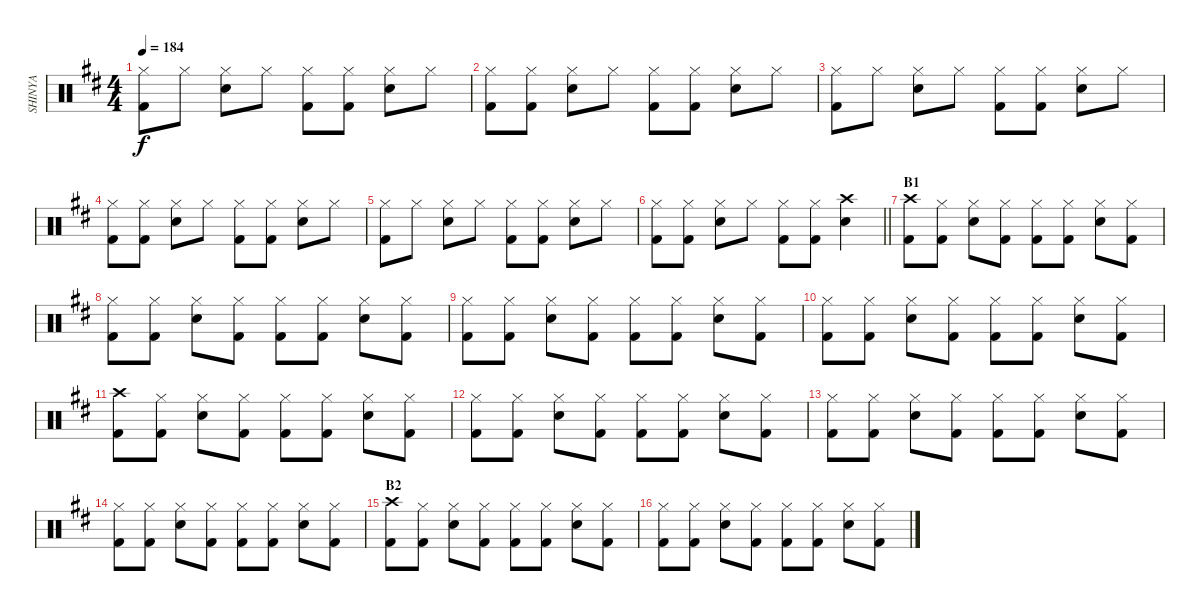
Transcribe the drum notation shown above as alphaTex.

\track ("SHINYA" "SHINYA") {instrument percussion}
\staff {score}
\articulation defaults
\ts (4 4)
\tempo 184
\clef neutral
\ks bminor
("Hi-Hat (closed)" "Kick (hit) 2").8{dy f} "Hi-Hat (closed)".8 ("Hi-Hat (closed)" "Snare (hit) 2").8 "Hi-Hat (closed)".8 ("Hi-Hat (closed)" "Kick (hit) 2").8 ("Hi-Hat (closed)" "Kick (hit) 2").8 ("Hi-Hat (closed)" "Snare (hit) 2").8 "Hi-Hat (closed)".8 |
("Hi-Hat (closed)" "Kick (hit) 2").8 ("Hi-Hat (closed)" "Kick (hit) 2").8 ("Hi-Hat (closed)" "Snare (hit) 2").8 "Hi-Hat (closed)".8 ("Hi-Hat (closed)" "Kick (hit) 2").8 ("Hi-Hat (closed)" "Kick (hit) 2").8 ("Hi-Hat (closed)" "Snare (hit) 2").8 "Hi-Hat (closed)".8 |
("Hi-Hat (closed)" "Kick (hit) 2").8 "Hi-Hat (closed)".8 ("Hi-Hat (closed)" "Snare (hit) 2").8 "Hi-Hat (closed)".8 ("Hi-Hat (closed)" "Kick (hit) 2").8 ("Hi-Hat (closed)" "Kick (hit) 2").8 ("Hi-Hat (closed)" "Snare (hit) 2").8 "Hi-Hat (closed)".8 |
("Hi-Hat (closed)" "Kick (hit) 2").8 ("Hi-Hat (closed)" "Kick (hit) 2").8 ("Hi-Hat (closed)" "Snare (hit) 2").8 "Hi-Hat (closed)".8 ("Hi-Hat (closed)" "Kick (hit) 2").8 ("Hi-Hat (closed)" "Kick (hit) 2").8 ("Hi-Hat (closed)" "Snare (hit) 2").8 "Hi-Hat (closed)".8 |
("Hi-Hat (closed)" "Kick (hit) 2").8 "Hi-Hat (closed)".8 ("Hi-Hat (closed)" "Snare (hit) 2").8 "Hi-Hat (closed)".8 ("Hi-Hat (closed)" "Kick (hit) 2").8 ("Hi-Hat (closed)" "Kick (hit) 2").8 ("Hi-Hat (closed)" "Snare (hit) 2").8 "Hi-Hat (closed)".8 |
\barLineRight lightlight
("Hi-Hat (closed)" "Kick (hit) 2").8 ("Hi-Hat (closed)" "Kick (hit) 2").8 ("Hi-Hat (closed)" "Snare (hit) 2").8 "Hi-Hat (closed)".8 ("Hi-Hat (closed)" "Kick (hit) 2").8 ("Hi-Hat (closed)" "Kick (hit) 2").8 ("Crash high (hit)" "Snare (hit) 2").4 |
\section ("" "B1")
("Crash high (hit)" "Kick (hit) 2").8 ("Hi-Hat (closed)" "Kick (hit) 2").8 ("Hi-Hat (closed)" "Snare (hit) 2").8 ("Hi-Hat (closed)" "Kick (hit) 2").8 ("Hi-Hat (closed)" "Kick (hit) 2").8 ("Hi-Hat (closed)" "Kick (hit) 2").8 ("Hi-Hat (closed)" "Snare (hit) 2").8 ("Hi-Hat (closed)" "Kick (hit) 2").8 |
("Hi-Hat (closed)" "Kick (hit) 2").8 ("Hi-Hat (closed)" "Kick (hit) 2").8 ("Hi-Hat (closed)" "Snare (hit) 2").8 ("Hi-Hat (closed)" "Kick (hit) 2").8 ("Hi-Hat (closed)" "Kick (hit) 2").8 ("Hi-Hat (closed)" "Kick (hit) 2").8 ("Hi-Hat (closed)" "Snare (hit) 2").8 ("Hi-Hat (closed)" "Kick (hit) 2").8 |
("Hi-Hat (closed)" "Kick (hit) 2").8 ("Hi-Hat (closed)" "Kick (hit) 2").8 ("Hi-Hat (closed)" "Snare (hit) 2").8 ("Hi-Hat (closed)" "Kick (hit) 2").8 ("Hi-Hat (closed)" "Kick (hit) 2").8 ("Hi-Hat (closed)" "Kick (hit) 2").8 ("Hi-Hat (closed)" "Snare (hit) 2").8 ("Hi-Hat (closed)" "Kick (hit) 2").8 |
("Hi-Hat (closed)" "Kick (hit) 2").8 ("Hi-Hat (closed)" "Kick (hit) 2").8 ("Hi-Hat (closed)" "Snare (hit) 2").8 ("Hi-Hat (closed)" "Kick (hit) 2").8 ("Hi-Hat (closed)" "Kick (hit) 2").8 ("Hi-Hat (closed)" "Kick (hit) 2").8 ("Hi-Hat (closed)" "Snare (hit) 2").8 ("Hi-Hat (closed)" "Kick (hit) 2").8 |
("Crash high (hit)" "Kick (hit) 2").8 ("Hi-Hat (closed)" "Kick (hit) 2").8 ("Hi-Hat (closed)" "Snare (hit) 2").8 ("Hi-Hat (closed)" "Kick (hit) 2").8 ("Hi-Hat (closed)" "Kick (hit) 2").8 ("Hi-Hat (closed)" "Kick (hit) 2").8 ("Hi-Hat (closed)" "Snare (hit) 2").8 ("Hi-Hat (closed)" "Kick (hit) 2").8 |
("Hi-Hat (closed)" "Kick (hit) 2").8 ("Hi-Hat (closed)" "Kick (hit) 2").8 ("Hi-Hat (closed)" "Snare (hit) 2").8 ("Hi-Hat (closed)" "Kick (hit) 2").8 ("Hi-Hat (closed)" "Kick (hit) 2").8 ("Hi-Hat (closed)" "Kick (hit) 2").8 ("Hi-Hat (closed)" "Snare (hit) 2").8 ("Hi-Hat (closed)" "Kick (hit) 2").8 |
("Hi-Hat (closed)" "Kick (hit) 2").8 ("Hi-Hat (closed)" "Kick (hit) 2").8 ("Hi-Hat (closed)" "Snare (hit) 2").8 ("Hi-Hat (closed)" "Kick (hit) 2").8 ("Hi-Hat (closed)" "Kick (hit) 2").8 ("Hi-Hat (closed)" "Kick (hit) 2").8 ("Hi-Hat (closed)" "Snare (hit) 2").8 ("Hi-Hat (closed)" "Kick (hit) 2").8 |
("Hi-Hat (closed)" "Kick (hit) 2").8 ("Hi-Hat (closed)" "Kick (hit) 2").8 ("Hi-Hat (closed)" "Snare (hit) 2").8 ("Hi-Hat (closed)" "Kick (hit) 2").8 ("Hi-Hat (closed)" "Kick (hit) 2").8 ("Hi-Hat (closed)" "Kick (hit) 2").8 ("Hi-Hat (closed)" "Snare (hit) 2").8 ("Hi-Hat (closed)" "Kick (hit) 2").8 |
\section ("" "B2")
("Crash high (hit)" "Kick (hit) 2").8 ("Hi-Hat (closed)" "Kick (hit) 2").8 ("Hi-Hat (closed)" "Snare (hit) 2").8 ("Hi-Hat (closed)" "Kick (hit) 2").8 ("Hi-Hat (closed)" "Kick (hit) 2").8 ("Hi-Hat (closed)" "Kick (hit) 2").8 ("Hi-Hat (closed)" "Snare (hit) 2").8 ("Hi-Hat (closed)" "Kick (hit) 2").8 |
("Hi-Hat (closed)" "Kick (hit) 2").8 ("Hi-Hat (closed)" "Kick (hit) 2").8 ("Hi-Hat (closed)" "Snare (hit) 2").8 ("Hi-Hat (closed)" "Kick (hit) 2").8 ("Hi-Hat (closed)" "Kick (hit) 2").8 ("Hi-Hat (closed)" "Kick (hit) 2").8 ("Hi-Hat (closed)" "Snare (hit) 2").8 ("Hi-Hat (closed)" "Kick (hit) 2").8
